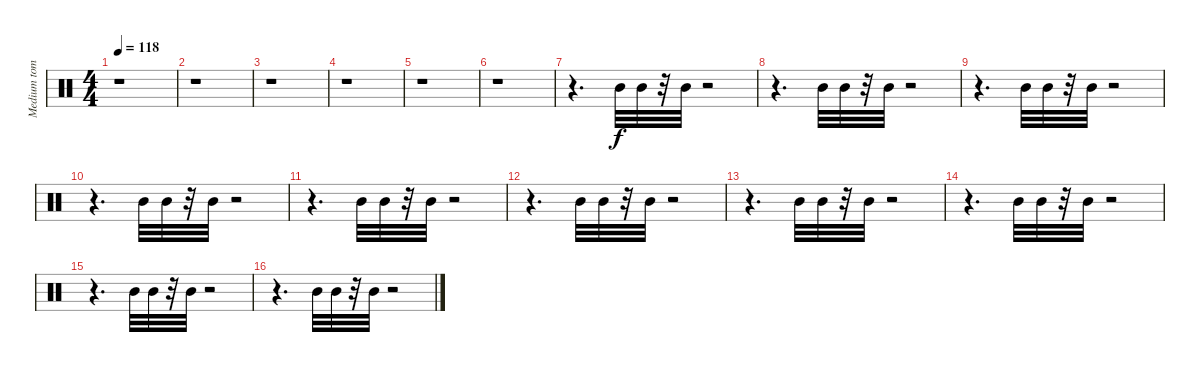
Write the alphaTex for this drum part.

\track ("Medium tom          " "Medium tom") {instrument percussion}
\staff {score}
\articulation defaults
\ts (4 4)
\tempo 118
\clef neutral
\ks c
r.1{dy f} |
r.1 |
r.1 |
r.1 |
r.1 |
r.1 |
r.4{d} "Mid Tom (hit)".32 "Mid Tom (hit)".32 r.32 "Mid Tom (hit)".32 r.2 |
r.4{d} "Mid Tom (hit)".32 "Mid Tom (hit)".32 r.32 "Mid Tom (hit)".32 r.2 |
r.4{d} "Mid Tom (hit)".32 "Mid Tom (hit)".32 r.32 "Mid Tom (hit)".32 r.2 |
r.4{d} "Mid Tom (hit)".32 "Mid Tom (hit)".32 r.32 "Mid Tom (hit)".32 r.2 |
r.4{d} "Mid Tom (hit)".32 "Mid Tom (hit)".32 r.32 "Mid Tom (hit)".32 r.2 |
r.4{d} "Mid Tom (hit)".32 "Mid Tom (hit)".32 r.32 "Mid Tom (hit)".32 r.2 |
r.4{d} "Mid Tom (hit)".32 "Mid Tom (hit)".32 r.32 "Mid Tom (hit)".32 r.2 |
r.4{d} "Mid Tom (hit)".32 "Mid Tom (hit)".32 r.32 "Mid Tom (hit)".32 r.2 |
r.4{d} "Mid Tom (hit)".32 "Mid Tom (hit)".32 r.32 "Mid Tom (hit)".32 r.2 |
r.4{d} "Mid Tom (hit)".32 "Mid Tom (hit)".32 r.32 "Mid Tom (hit)".32 r.2
